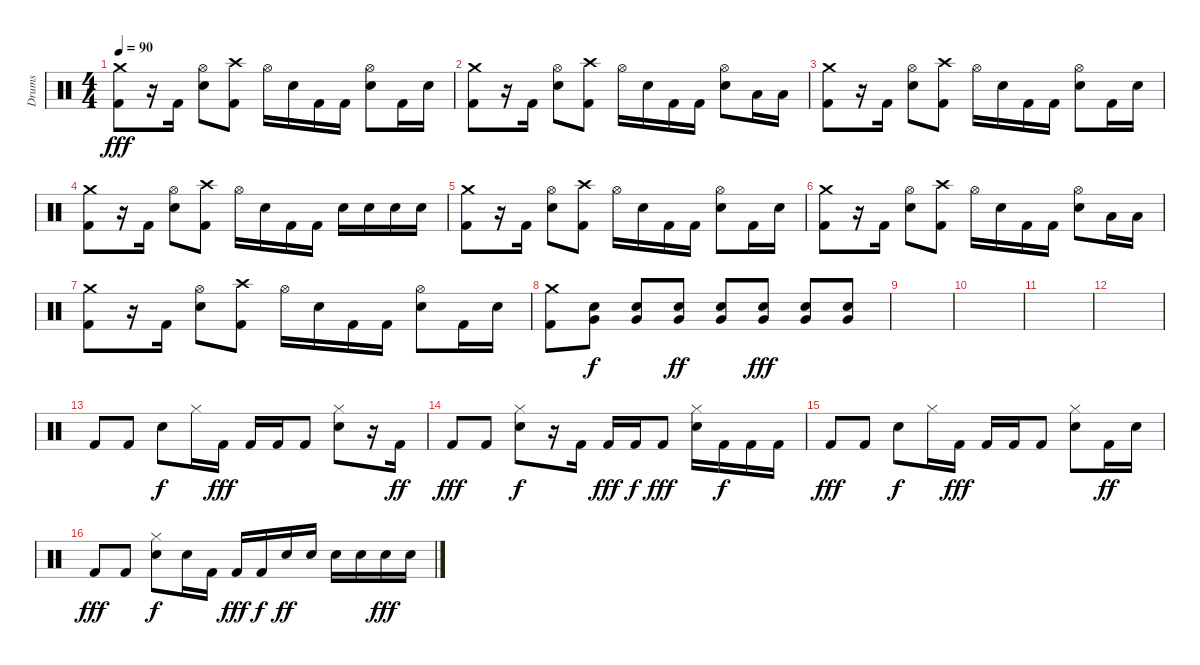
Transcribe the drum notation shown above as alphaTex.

\track ("Drums" "Drums") {instrument percussion}
\staff {score}
\articulation defaults
\ts (4 4)
\tempo 90
\clef neutral
\ks c
("Crash medium (hit)" "Kick (hit) 2").8{dy fff} r.16 "Kick (hit) 2".16 ("Hi-Hat (open)" "Snare (hit) 2").8 ("Crash high (hit)" "Kick (hit) 2").8 "Hi-Hat (open)".16 "Snare (hit) 2".16 "Kick (hit) 2".16 "Kick (hit) 2".16 ("Hi-Hat (open)" "Snare (hit) 2").8 "Kick (hit) 2".16 "Snare (hit) 2".16 |
("Crash medium (hit)" "Kick (hit) 2").8 r.16 "Kick (hit) 2".16 ("Hi-Hat (open)" "Snare (hit) 2").8 ("Crash high (hit)" "Kick (hit) 2").8 "Hi-Hat (open)".16 "Snare (hit) 2".16 "Kick (hit) 2".16 "Kick (hit) 2".16 ("Hi-Hat (open)" "Snare (hit) 2").8 "Low Tom (hit)".16 "Low Tom (hit)".16 |
("Crash medium (hit)" "Kick (hit) 2").8 r.16 "Kick (hit) 2".16 ("Hi-Hat (open)" "Snare (hit) 2").8 ("Crash high (hit)" "Kick (hit) 2").8 "Hi-Hat (open)".16 "Snare (hit) 2".16 "Kick (hit) 2".16 "Kick (hit) 2".16 ("Hi-Hat (open)" "Snare (hit) 2").8 "Kick (hit) 2".16 "Snare (hit) 2".16 |
("Crash medium (hit)" "Kick (hit) 2").8 r.16 "Kick (hit) 2".16 ("Hi-Hat (open)" "Snare (hit) 2").8 ("Crash high (hit)" "Kick (hit) 2").8 "Hi-Hat (open)".16 "Snare (hit) 2".16 "Kick (hit) 2".16 "Kick (hit) 2".16 "Snare (hit) 2".16 "Snare (hit) 2".16 "Snare (hit) 2".16 "Snare (hit) 2".16 |
("Crash medium (hit)" "Kick (hit) 2").8 r.16 "Kick (hit) 2".16 ("Hi-Hat (open)" "Snare (hit) 2").8 ("Crash high (hit)" "Kick (hit) 2").8 "Hi-Hat (open)".16 "Snare (hit) 2".16 "Kick (hit) 2".16 "Kick (hit) 2".16 ("Hi-Hat (open)" "Snare (hit) 2").8 "Kick (hit) 2".16 "Snare (hit) 2".16 |
("Crash medium (hit)" "Kick (hit) 2").8 r.16 "Kick (hit) 2".16 ("Hi-Hat (open)" "Snare (hit) 2").8 ("Crash high (hit)" "Kick (hit) 2").8 "Hi-Hat (open)".16 "Snare (hit) 2".16 "Kick (hit) 2".16 "Kick (hit) 2".16 ("Hi-Hat (open)" "Snare (hit) 2").8 "Low Tom (hit)".16 "Low Tom (hit)".16 |
("Crash medium (hit)" "Kick (hit) 2").8 r.16 "Kick (hit) 2".16 ("Hi-Hat (open)" "Snare (hit) 2").8 ("Crash high (hit)" "Kick (hit) 2").8 "Hi-Hat (open)".16 "Snare (hit) 2".16 "Kick (hit) 2".16 "Kick (hit) 2".16 ("Hi-Hat (open)" "Snare (hit) 2").8 "Kick (hit) 2".16 "Snare (hit) 2".16 |
("Crash medium (hit)" "Kick (hit) 2").8 ("Very Low Tom (hit)" "Snare (hit) 2").8{dy f} ("Very Low Tom (hit)" "Snare (hit) 2").8 ("Very Low Tom (hit)" "Snare (hit) 2").8{dy ff} ("Very Low Tom (hit)" "Snare (hit) 2").8 ("Very Low Tom (hit)" "Snare (hit) 2").8{dy fff} ("Very Low Tom (hit)" "Snare (hit) 2").8 ("Very Low Tom (hit)" "Snare (hit) 2").8 |
|
|
|
|
"Kick (hit) 2".8 "Kick (hit) 2".8 "Snare (hit) 2".8{dy f} "Hi-Hat (closed)".16 "Kick (hit) 2".16{dy fff} "Kick (hit) 2".16 "Kick (hit) 2".16 "Kick (hit) 2".8 ("Hi-Hat (closed)" "Snare (hit) 2").8 r.16 "Kick (hit) 2".16{dy ff} |
"Kick (hit) 2".8{dy fff} "Kick (hit) 2".8 ("Hi-Hat (closed)" "Snare (hit) 2").8{dy f} r.16 "Kick (hit) 2".16 "Kick (hit) 2".16{dy fff} "Kick (hit) 2".16{dy f} "Kick (hit) 2".8{dy fff} ("Hi-Hat (closed)" "Snare (hit) 2").16 "Kick (hit) 2".16{dy f} "Kick (hit) 2".16 "Kick (hit) 2".16 |
"Kick (hit) 2".8{dy fff} "Kick (hit) 2".8 "Snare (hit) 2".8{dy f} "Hi-Hat (closed)".16 "Kick (hit) 2".16{dy fff} "Kick (hit) 2".16 "Kick (hit) 2".16 "Kick (hit) 2".8 ("Hi-Hat (closed)" "Snare (hit) 2").8 "Kick (hit) 2".16{dy ff} "Snare (hit) 2".16 |
"Kick (hit) 2".8{dy fff} "Kick (hit) 2".8 ("Hi-Hat (closed)" "Snare (hit) 2").8{dy f} "Snare (hit) 2".16 "Kick (hit) 2".16 "Kick (hit) 2".16{dy fff} "Kick (hit) 2".16{dy f} "Snare (hit) 2".16{dy ff} "Snare (hit) 2".16 "Snare (hit) 2".16 "Snare (hit) 2".16 "Snare (hit) 2".16{dy fff} "Snare (hit) 2".16
